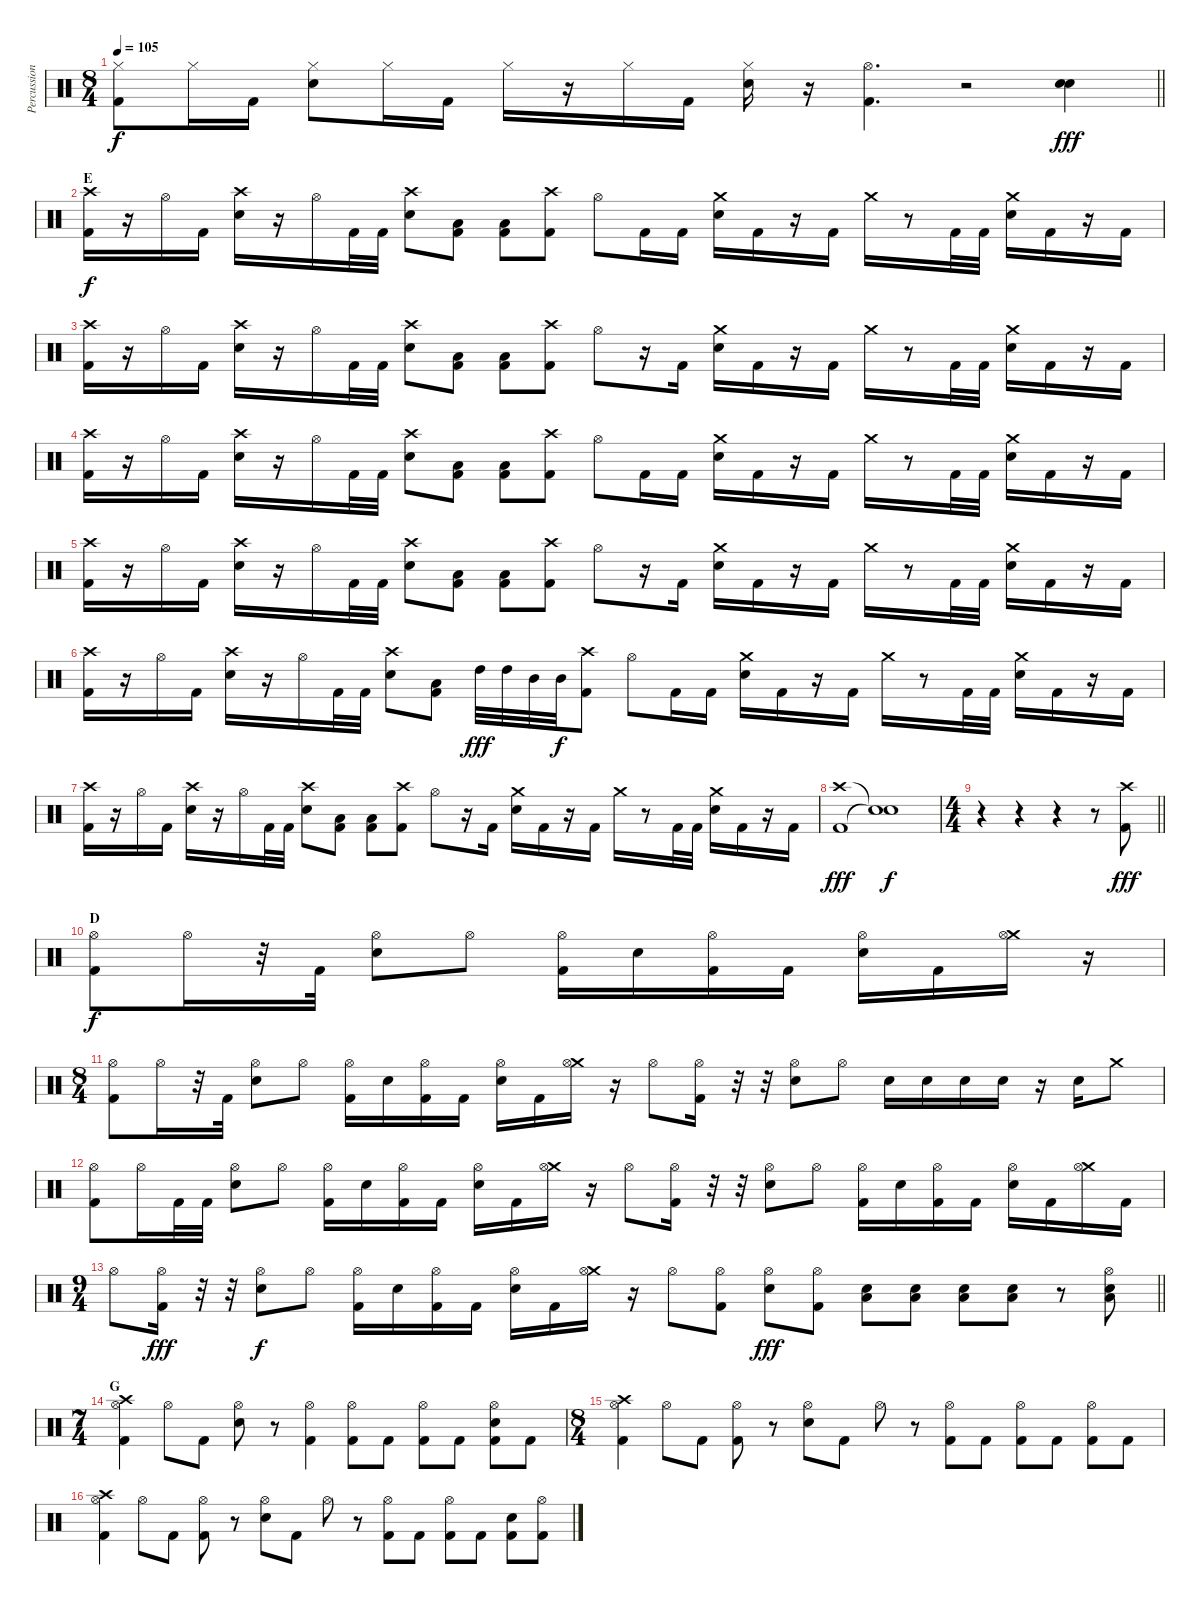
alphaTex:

\track ("Percussions" "Percussion") {instrument percussion}
\staff {score}
\articulation defaults
\ts (8 4)
\tempo 105
\clef neutral
\barLineRight lightlight
\ks c
("Hi-Hat (closed)" "Kick (hit) 2").8{dy f} "Hi-Hat (closed)".16 "Kick (hit) 2".16 ("Hi-Hat (closed)" "Snare (hit) 2").8 "Hi-Hat (closed)".16 "Kick (hit) 2".16 "Hi-Hat (closed)".16 r.16 "Hi-Hat (closed)".16 "Kick (hit) 2".16 ("Hi-Hat (closed)" "Snare (hit) 2").16 r.16 ("Hi-Hat (open)" "Kick (hit) 2").4{d} r.2 ("Snare (hit) 2" "Snare (hit) 2").4{dy fff} |
\section ("" "E")
("Crash high (hit)" "Kick (hit) 2").16{dy f} r.16 "Hi-Hat (open)".16 "Kick (hit) 2".16 ("Crash high (hit)" "Snare (hit) 2").16 r.16 "Hi-Hat (open)".16 "Kick (hit) 2".32 "Kick (hit) 2".32 ("Crash high (hit)" "Snare (hit) 2").8 ("Low Tom (hit)" "Kick (hit) 2").8 ("Low Tom (hit)" "Kick (hit) 2").8 ("Crash high (hit)" "Kick (hit) 2").8 "Hi-Hat (open)".8 "Kick (hit) 2".16 "Kick (hit) 2".16 ("Crash medium (hit)" "Snare (hit) 2").16 "Kick (hit) 2".16 r.16 "Kick (hit) 2".16 "Crash medium (hit)".16 r.8 "Kick (hit) 2".32 "Kick (hit) 2".32 ("Crash medium (hit)" "Snare (hit) 2").16 "Kick (hit) 2".16 r.16 "Kick (hit) 2".16 |
("Crash high (hit)" "Kick (hit) 2").16 r.16 "Hi-Hat (open)".16 "Kick (hit) 2".16 ("Crash high (hit)" "Snare (hit) 2").16 r.16 "Hi-Hat (open)".16 "Kick (hit) 2".32 "Kick (hit) 2".32 ("Crash high (hit)" "Snare (hit) 2").8 ("Low Tom (hit)" "Kick (hit) 2").8 ("Low Tom (hit)" "Kick (hit) 2").8 ("Crash high (hit)" "Kick (hit) 2").8 "Hi-Hat (open)".8 r.16 "Kick (hit) 2".16 ("Crash medium (hit)" "Snare (hit) 2").16 "Kick (hit) 2".16 r.16 "Kick (hit) 2".16 "Crash medium (hit)".16 r.8 "Kick (hit) 2".32 "Kick (hit) 2".32 ("Crash medium (hit)" "Snare (hit) 2").16 "Kick (hit) 2".16 r.16 "Kick (hit) 2".16 |
("Crash high (hit)" "Kick (hit) 2").16 r.16 "Hi-Hat (open)".16 "Kick (hit) 2".16 ("Crash high (hit)" "Snare (hit) 2").16 r.16 "Hi-Hat (open)".16 "Kick (hit) 2".32 "Kick (hit) 2".32 ("Crash high (hit)" "Snare (hit) 2").8 ("Low Tom (hit)" "Kick (hit) 2").8 ("Low Tom (hit)" "Kick (hit) 2").8 ("Crash high (hit)" "Kick (hit) 2").8 "Hi-Hat (open)".8 "Kick (hit) 2".16 "Kick (hit) 2".16 ("Crash medium (hit)" "Snare (hit) 2").16 "Kick (hit) 2".16 r.16 "Kick (hit) 2".16 "Crash medium (hit)".16 r.8 "Kick (hit) 2".32 "Kick (hit) 2".32 ("Crash medium (hit)" "Snare (hit) 2").16 "Kick (hit) 2".16 r.16 "Kick (hit) 2".16 |
("Crash high (hit)" "Kick (hit) 2").16 r.16 "Hi-Hat (open)".16 "Kick (hit) 2".16 ("Crash high (hit)" "Snare (hit) 2").16 r.16 "Hi-Hat (open)".16 "Kick (hit) 2".32 "Kick (hit) 2".32 ("Crash high (hit)" "Snare (hit) 2").8 ("Low Tom (hit)" "Kick (hit) 2").8 ("Low Tom (hit)" "Kick (hit) 2").8 ("Crash high (hit)" "Kick (hit) 2").8 "Hi-Hat (open)".8 r.16 "Kick (hit) 2".16 ("Crash medium (hit)" "Snare (hit) 2").16 "Kick (hit) 2".16 r.16 "Kick (hit) 2".16 "Crash medium (hit)".16 r.8 "Kick (hit) 2".32 "Kick (hit) 2".32 ("Crash medium (hit)" "Snare (hit) 2").16 "Kick (hit) 2".16 r.16 "Kick (hit) 2".16 |
("Crash high (hit)" "Kick (hit) 2").16 r.16 "Hi-Hat (open)".16 "Kick (hit) 2".16 ("Crash high (hit)" "Snare (hit) 2").16 r.16 "Hi-Hat (open)".16 "Kick (hit) 2".32 "Kick (hit) 2".32 ("Crash high (hit)" "Snare (hit) 2").8 ("Low Tom (hit)" "Kick (hit) 2").8 "High Tom (hit)".32{dy fff} "High Tom (hit)".32 "Mid Tom (hit)".32 "Mid Tom (hit)".32{dy f} ("Crash high (hit)" "Kick (hit) 2").8 "Hi-Hat (open)".8 "Kick (hit) 2".16 "Kick (hit) 2".16 ("Crash medium (hit)" "Snare (hit) 2").16 "Kick (hit) 2".16 r.16 "Kick (hit) 2".16 "Crash medium (hit)".16 r.8 "Kick (hit) 2".32 "Kick (hit) 2".32 ("Crash medium (hit)" "Snare (hit) 2").16 "Kick (hit) 2".16 r.16 "Kick (hit) 2".16 |
("Crash high (hit)" "Kick (hit) 2").16 r.16 "Hi-Hat (open)".16 "Kick (hit) 2".16 ("Crash high (hit)" "Snare (hit) 2").16 r.16 "Hi-Hat (open)".16 "Kick (hit) 2".32 "Kick (hit) 2".32 ("Crash high (hit)" "Snare (hit) 2").8 ("Low Tom (hit)" "Kick (hit) 2").8 ("Low Tom (hit)" "Kick (hit) 2").8 ("Crash high (hit)" "Kick (hit) 2").8 "Hi-Hat (open)".8 r.16 "Kick (hit) 2".16 ("Crash medium (hit)" "Snare (hit) 2").16 "Kick (hit) 2".16 r.16 "Kick (hit) 2".16 "Crash medium (hit)".16 r.8 "Kick (hit) 2".32 "Kick (hit) 2".32 ("Crash medium (hit)" "Snare (hit) 2").16 "Kick (hit) 2".16 r.16 "Kick (hit) 2".16 |
("Crash high (hit)" "Kick (hit) 2").1{dy fff} ("Snare (hit)"{t} "Snare (hit)"{t}).1{dy f} |
\ts (4 4)
\barLineRight lightlight
r.4 r.4 r.4 r.8 ("Crash high (hit)" "Kick (hit) 2").8{dy fff} |
\section ("" "D")
("Hi-Hat (open)" "Kick (hit) 2").8{dy f} "Hi-Hat (open)".16 r.32 "Kick (hit) 2".32 ("Hi-Hat (open)" "Snare (hit) 2").8 "Hi-Hat (open)".8 ("Hi-Hat (open)" "Kick (hit) 2").16 "Snare (hit) 2".16 ("Hi-Hat (open)" "Kick (hit) 2").16 "Kick (hit) 2".16 ("Hi-Hat (open)" "Snare (hit) 2").16 "Kick (hit) 2".16 ("Crash medium (hit)" "Hi-Hat (open)").16 r.16 |
\ts (8 4)
("Hi-Hat (open)" "Kick (hit) 2").8 "Hi-Hat (open)".16 r.32 "Kick (hit) 2".32 ("Hi-Hat (open)" "Snare (hit) 2").8 "Hi-Hat (open)".8 ("Hi-Hat (open)" "Kick (hit) 2").16 "Snare (hit) 2".16 ("Hi-Hat (open)" "Kick (hit) 2").16 "Kick (hit) 2".16 ("Hi-Hat (open)" "Snare (hit) 2").16 "Kick (hit) 2".16 ("Crash medium (hit)" "Hi-Hat (open)").16 r.16 "Hi-Hat (open)".8 ("Hi-Hat (open)" "Kick (hit) 2").16 r.32 r.32 ("Hi-Hat (open)" "Snare (hit) 2").8 "Hi-Hat (open)".8 "Snare (hit) 2".16 "Snare (hit) 2".16 "Snare (hit) 2".16 "Snare (hit) 2".16 r.16 "Snare (hit) 2".16 "Crash medium (hit)".8 |
("Hi-Hat (open)" "Kick (hit) 2").8 "Hi-Hat (open)".16 "Kick (hit) 2".32 "Kick (hit) 2".32 ("Hi-Hat (open)" "Snare (hit) 2").8 "Hi-Hat (open)".8 ("Hi-Hat (open)" "Kick (hit) 2").16 "Snare (hit) 2".16 ("Hi-Hat (open)" "Kick (hit) 2").16 "Kick (hit) 2".16 ("Hi-Hat (open)" "Snare (hit) 2").16 "Kick (hit) 2".16 ("Crash medium (hit)" "Hi-Hat (open)").16 r.16 "Hi-Hat (open)".8 ("Hi-Hat (open)" "Kick (hit) 2").16 r.32 r.32 ("Hi-Hat (open)" "Snare (hit) 2").8 "Hi-Hat (open)".8 ("Hi-Hat (open)" "Kick (hit) 2").16 "Snare (hit) 2".16 ("Hi-Hat (open)" "Kick (hit) 2").16 "Kick (hit) 2".16 ("Hi-Hat (open)" "Snare (hit) 2").16 "Kick (hit) 2".16 ("Crash medium (hit)" "Hi-Hat (open)").16 "Kick (hit) 2".16 |
\ts (9 4)
\barLineRight lightlight "Hi-Hat (open)".8
("Hi-Hat (open)" "Kick (hit) 2").16{dy fff} r.32 r.32 ("Hi-Hat (open)" "Snare (hit) 2").8{dy f} "Hi-Hat (open)".8 ("Hi-Hat (open)" "Kick (hit) 2").16 "Snare (hit) 2".16 ("Hi-Hat (open)" "Kick (hit) 2").16 "Kick (hit) 2".16 ("Hi-Hat (open)" "Snare (hit) 2").16 "Kick (hit) 2".16 ("Crash medium (hit)" "Hi-Hat (open)").16 r.16 "Hi-Hat (open)".8 ("Hi-Hat (open)" "Kick (hit) 2").8 ("Hi-Hat (open)" "Snare (hit) 2").8{dy fff} ("Hi-Hat (open)" "Kick (hit) 2").8 ("Snare (hit) 2" "Low Tom (hit)").8 ("Snare (hit) 2" "Low Tom (hit)").8 ("Snare (hit) 2" "Low Tom (hit)").8 ("Snare (hit) 2" "Low Tom (hit)").8 r.8 ("Hi-Hat (open)" "Snare (hit) 2" "Low Tom (hit)").8 |
\ts (7 4)
\section ("" "G")
("Crash high (hit)" "Hi-Hat (open)" "Kick (hit) 2").4 "Hi-Hat (open)".8 "Kick (hit) 2".8 ("Hi-Hat (open)" "Snare (hit) 2").8 r.8 ("Hi-Hat (open)" "Kick (hit) 2").4 ("Hi-Hat (open)" "Kick (hit) 2").8 "Kick (hit) 2".8 ("Hi-Hat (open)" "Kick (hit) 2").8 "Kick (hit) 2".8 ("Hi-Hat (open)" "Snare (hit) 2" "Kick (hit) 2").8 "Kick (hit) 2".8 |
\ts (8 4)
("Crash high (hit)" "Hi-Hat (open)" "Kick (hit) 2").4 "Hi-Hat (open)".8 "Kick (hit) 2".8 ("Hi-Hat (open)" "Kick (hit) 2").8 r.8 ("Hi-Hat (open)" "Snare (hit) 2").8 "Kick (hit) 2".8 "Hi-Hat (open)".8 r.8 ("Hi-Hat (open)" "Kick (hit) 2").8 "Kick (hit) 2".8 ("Hi-Hat (open)" "Kick (hit) 2").8 "Kick (hit) 2".8 ("Hi-Hat (open)" "Kick (hit) 2").8 "Kick (hit) 2".8 |
("Crash high (hit)" "Hi-Hat (open)" "Kick (hit) 2").4 "Hi-Hat (open)".8 "Kick (hit) 2".8 ("Hi-Hat (open)" "Kick (hit) 2").8 r.8 ("Hi-Hat (open)" "Snare (hit) 2").8 "Kick (hit) 2".8 "Hi-Hat (open)".8 r.8 ("Hi-Hat (open)" "Kick (hit) 2").8 "Kick (hit) 2".8 ("Hi-Hat (open)" "Kick (hit) 2").8 "Kick (hit) 2".8 ("Snare (hit) 2" "Kick (hit) 2").8 ("Hi-Hat (open)" "Kick (hit) 2").8
